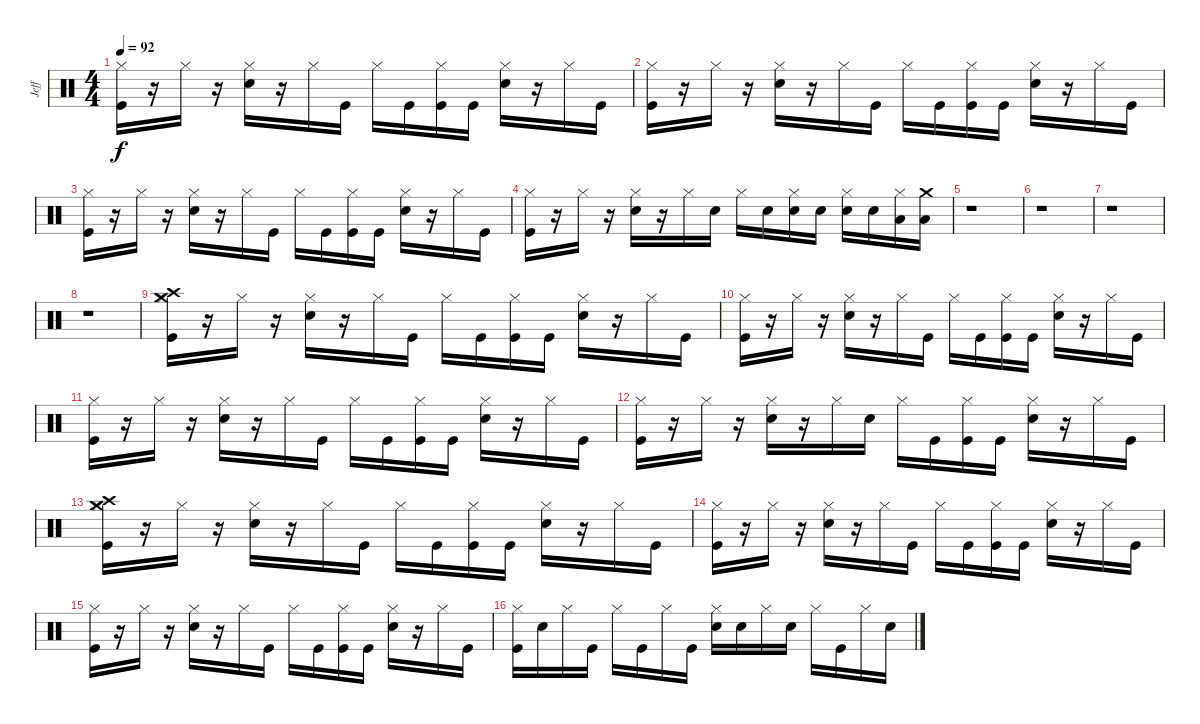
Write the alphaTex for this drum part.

\track ("Jeff" "Jeff") {instrument percussion}
\staff {score}
\articulation defaults
\ts (4 4)
\tempo 92
\clef neutral
\ks c
("Hi-Hat (closed)" "Kick (hit)").16{dy f} r.16 "Hi-Hat (closed)".16 r.16 ("Electric Snare (hit)" "Hi-Hat (closed)").16 r.16 "Hi-Hat (closed)".16 "Kick (hit)".16 "Hi-Hat (closed)".16 "Kick (hit)".16 ("Hi-Hat (closed)" "Kick (hit)").16 "Kick (hit)".16 ("Electric Snare (hit)" "Hi-Hat (closed)").16 r.16 "Hi-Hat (closed)".16 "Kick (hit)".16 |
("Hi-Hat (closed)" "Kick (hit)").16 r.16 "Hi-Hat (closed)".16 r.16 ("Electric Snare (hit)" "Hi-Hat (closed)").16 r.16 "Hi-Hat (closed)".16 "Kick (hit)".16 "Hi-Hat (closed)".16 "Kick (hit)".16 ("Hi-Hat (closed)" "Kick (hit)").16 "Kick (hit)".16 ("Electric Snare (hit)" "Hi-Hat (closed)").16 r.16 "Hi-Hat (closed)".16 "Kick (hit)".16 |
("Hi-Hat (closed)" "Kick (hit)").16 r.16 "Hi-Hat (closed)".16 r.16 ("Electric Snare (hit)" "Hi-Hat (closed)").16 r.16 "Hi-Hat (closed)".16 "Kick (hit)".16 "Hi-Hat (closed)".16 "Kick (hit)".16 ("Hi-Hat (closed)" "Kick (hit)").16 "Kick (hit)".16 ("Electric Snare (hit)" "Hi-Hat (closed)").16 r.16 "Hi-Hat (closed)".16 "Kick (hit)".16 |
("Hi-Hat (closed)" "Kick (hit)").16 r.16 "Hi-Hat (closed)".16 r.16 ("Electric Snare (hit)" "Hi-Hat (closed)").16 r.16 "Hi-Hat (closed)".16 "Electric Snare (hit)".16 "Hi-Hat (closed)".16 "Electric Snare (hit)".16 ("Electric Snare (hit)" "Hi-Hat (closed)").16 "Electric Snare (hit)".16 ("Electric Snare (hit)" "Hi-Hat (closed)").16 "Electric Snare (hit)".16 ("Low Tom (hit)" "Hi-Hat (closed)").16 ("Low Tom (hit)" "Crash medium (hit)").16 |
r.1 |
r.1 |
r.1 |
r.1 |
("Crash medium (hit)" "Hi-Hat (closed)" "Crash high (hit)" "Kick (hit)").16 r.16 "Hi-Hat (closed)".16 r.16 ("Electric Snare (hit)" "Hi-Hat (closed)").16 r.16 "Hi-Hat (closed)".16 "Kick (hit)".16 "Hi-Hat (closed)".16 "Kick (hit)".16 ("Hi-Hat (closed)" "Kick (hit)").16 "Kick (hit)".16 ("Electric Snare (hit)" "Hi-Hat (closed)").16 r.16 "Hi-Hat (closed)".16 "Kick (hit)".16 |
("Hi-Hat (closed)" "Kick (hit)").16 r.16 "Hi-Hat (closed)".16 r.16 ("Electric Snare (hit)" "Hi-Hat (closed)").16 r.16 "Hi-Hat (closed)".16 "Kick (hit)".16 "Hi-Hat (closed)".16 "Kick (hit)".16 ("Hi-Hat (closed)" "Kick (hit)").16 "Kick (hit)".16 ("Electric Snare (hit)" "Hi-Hat (closed)").16 r.16 "Hi-Hat (closed)".16 "Kick (hit)".16 |
("Hi-Hat (closed)" "Kick (hit)").16 r.16 "Hi-Hat (closed)".16 r.16 ("Electric Snare (hit)" "Hi-Hat (closed)").16 r.16 "Hi-Hat (closed)".16 "Kick (hit)".16 "Hi-Hat (closed)".16 "Kick (hit)".16 ("Hi-Hat (closed)" "Kick (hit)").16 "Kick (hit)".16 ("Electric Snare (hit)" "Hi-Hat (closed)").16 r.16 "Hi-Hat (closed)".16 "Kick (hit)".16 |
("Hi-Hat (closed)" "Kick (hit)").16 r.16 "Hi-Hat (closed)".16 r.16 ("Electric Snare (hit)" "Hi-Hat (closed)").16 r.16 "Hi-Hat (closed)".16 "Electric Snare (hit)".16 "Hi-Hat (closed)".16 "Kick (hit)".16 ("Hi-Hat (closed)" "Kick (hit)").16 "Kick (hit)".16 ("Electric Snare (hit)" "Hi-Hat (closed)").16 r.16 "Hi-Hat (closed)".16 "Kick (hit)".16 |
("Crash medium (hit)" "Hi-Hat (closed)" "Crash high (hit)" "Kick (hit)").16 r.16 "Hi-Hat (closed)".16 r.16 ("Electric Snare (hit)" "Hi-Hat (closed)").16 r.16 "Hi-Hat (closed)".16 "Kick (hit)".16 "Hi-Hat (closed)".16 "Kick (hit)".16 ("Hi-Hat (closed)" "Kick (hit)").16 "Kick (hit)".16 ("Electric Snare (hit)" "Hi-Hat (closed)").16 r.16 "Hi-Hat (closed)".16 "Kick (hit)".16 |
("Hi-Hat (closed)" "Kick (hit)").16 r.16 "Hi-Hat (closed)".16 r.16 ("Electric Snare (hit)" "Hi-Hat (closed)").16 r.16 "Hi-Hat (closed)".16 "Kick (hit)".16 "Hi-Hat (closed)".16 "Kick (hit)".16 ("Hi-Hat (closed)" "Kick (hit)").16 "Kick (hit)".16 ("Electric Snare (hit)" "Hi-Hat (closed)").16 r.16 "Hi-Hat (closed)".16 "Kick (hit)".16 |
("Hi-Hat (closed)" "Kick (hit)").16 r.16 "Hi-Hat (closed)".16 r.16 ("Electric Snare (hit)" "Hi-Hat (closed)").16 r.16 "Hi-Hat (closed)".16 "Kick (hit)".16 "Hi-Hat (closed)".16 "Kick (hit)".16 ("Hi-Hat (closed)" "Kick (hit)").16 "Kick (hit)".16 ("Electric Snare (hit)" "Hi-Hat (closed)").16 r.16 "Hi-Hat (closed)".16 "Kick (hit)".16 |
("Hi-Hat (closed)" "Kick (hit)").16 "Electric Snare (hit)".16 "Hi-Hat (closed)".16 "Kick (hit)".16 "Hi-Hat (closed)".16 "Kick (hit)".16 "Hi-Hat (closed)".16 "Kick (hit)".16 ("Electric Snare (hit)" "Hi-Hat (closed)").16 "Electric Snare (hit)".16 "Hi-Hat (closed)".16 "Electric Snare (hit)".16 "Hi-Hat (closed)".16 "Kick (hit)".16 "Hi-Hat (closed)".16 "Electric Snare (hit)".16
